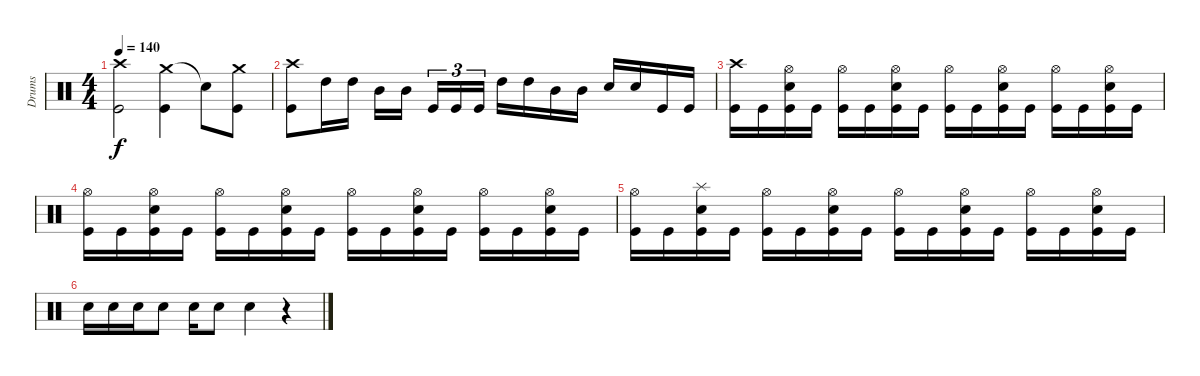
\track ("Drums" "Drums") {instrument percussion}
\staff {score}
\articulation defaults
\ts (4 4)
\tempo 140
\clef neutral
\ks c
("Crash high (hit)" "Kick (hit)").2{dy f} ("Crash medium (hit)" "Kick (hit)").4 "Snare (hit)"{t}.8 ("Crash medium (hit)" "Kick (hit)").8 |
("Crash high (hit)" "Kick (hit)").8 "High Tom (hit)".16 "High Tom (hit)".16 "Mid Tom (hit)".16 "Mid Tom (hit)".16 "Kick (hit)".16{tu (3 2)} "Kick (hit)".16{tu (3 2)} "Kick (hit)".16{tu (3 2)} "High Tom (hit)".16 "High Tom (hit)".16 "Mid Tom (hit)".16 "Mid Tom (hit)".16 "Electric Snare (hit)".16 "Electric Snare (hit)".16 "Kick (hit)".16 "Kick (hit)".16 |
("Crash high (hit)" "Kick (hit)").16 "Kick (hit)".16 ("Hi-Hat (open)" "Electric Snare (hit)" "Kick (hit)").16 "Kick (hit)".16 ("Hi-Hat (open)" "Kick (hit)").16 "Kick (hit)".16 ("Hi-Hat (open)" "Electric Snare (hit)" "Kick (hit)").16 "Kick (hit)".16 ("Hi-Hat (open)" "Kick (hit)").16 "Kick (hit)".16 ("Hi-Hat (open)" "Electric Snare (hit)" "Kick (hit)").16 "Kick (hit)".16 ("Hi-Hat (open)" "Kick (hit)").16 "Kick (hit)".16 ("Hi-Hat (open)" "Electric Snare (hit)" "Kick (hit)").16 "Kick (hit)".16 |
("Hi-Hat (open)" "Kick (hit)").16 "Kick (hit)".16 ("Hi-Hat (open)" "Electric Snare (hit)" "Kick (hit)").16 "Kick (hit)".16 ("Hi-Hat (open)" "Kick (hit)").16 "Kick (hit)".16 ("Hi-Hat (open)" "Electric Snare (hit)" "Kick (hit)").16 "Kick (hit)".16 ("Hi-Hat (open)" "Kick (hit)").16 "Kick (hit)".16 ("Hi-Hat (open)" "Electric Snare (hit)" "Kick (hit)").16 "Kick (hit)".16 ("Hi-Hat (open)" "Kick (hit)").16 "Kick (hit)".16 ("Hi-Hat (open)" "Electric Snare (hit)" "Kick (hit)").16 "Kick (hit)".16 |
("Hi-Hat (open)" "Kick (hit)").16 "Kick (hit)".16 ("Splash (hit)" "Electric Snare (hit)" "Kick (hit)").16 "Kick (hit)".16 ("Hi-Hat (open)" "Kick (hit)").16 "Kick (hit)".16 ("Hi-Hat (open)" "Electric Snare (hit)" "Kick (hit)").16 "Kick (hit)".16 ("Hi-Hat (open)" "Kick (hit)").16 "Kick (hit)".16 ("Hi-Hat (open)" "Electric Snare (hit)" "Kick (hit)").16 "Kick (hit)".16 ("Hi-Hat (open)" "Kick (hit)").16 "Kick (hit)".16 ("Hi-Hat (open)" "Electric Snare (hit)" "Kick (hit)").16 "Kick (hit)".16 |
"Electric Snare (hit)".16 "Electric Snare (hit)".16 "Electric Snare (hit)".16 "Electric Snare (hit)".8 "Electric Snare (hit)".16 "Electric Snare (hit)".8 "Electric Snare (hit)".4 r.4
